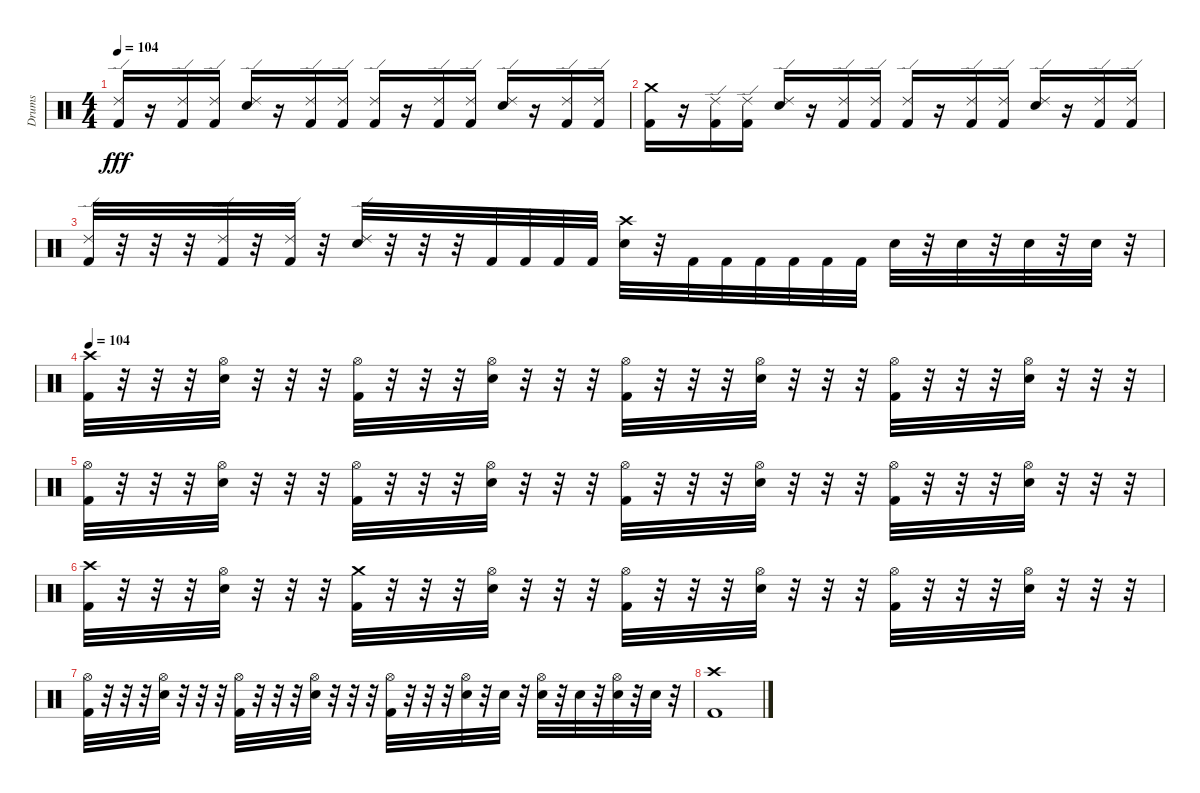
\track ("Drums" "Drums") {instrument percussion}
\staff {score}
\articulation defaults
\ts (4 4)
\tempo 104
\clef neutral
\ks c
("Ride (edge) 2" "Kick (hit) 2").16{dy fff} r.16 ("Ride (edge) 2" "Kick (hit) 2").16 ("Ride (edge) 2" "Kick (hit) 2").16 ("Ride (edge) 2" "Snare (hit) 2").16 r.16 ("Ride (edge) 2" "Kick (hit) 2").16 ("Ride (edge) 2" "Kick (hit) 2").16 ("Ride (edge) 2" "Kick (hit) 2").16 r.16 ("Ride (edge) 2" "Kick (hit) 2").16 ("Ride (edge) 2" "Kick (hit) 2").16 ("Ride (edge) 2" "Snare (hit) 2").16 r.16 ("Ride (edge) 2" "Kick (hit) 2").16 ("Ride (edge) 2" "Kick (hit) 2").16 |
("Crash medium (hit)" "Kick (hit) 2").16 r.16 ("Ride (edge) 2" "Kick (hit) 2").16 ("Ride (edge) 2" "Kick (hit) 2").16 ("Ride (edge) 2" "Snare (hit) 2").16 r.16 ("Ride (edge) 2" "Kick (hit) 2").16 ("Ride (edge) 2" "Kick (hit) 2").16 ("Ride (edge) 2" "Kick (hit) 2").16 r.16 ("Ride (edge) 2" "Kick (hit) 2").16 ("Ride (edge) 2" "Kick (hit) 2").16 ("Ride (edge) 2" "Snare (hit) 2").16 r.16 ("Ride (edge) 2" "Kick (hit) 2").16 ("Ride (edge) 2" "Kick (hit) 2").16 |
("Ride (edge) 2" "Kick (hit) 2").32 r.32 r.32 r.32 ("Ride (edge) 2" "Kick (hit) 2").32 r.32 ("Ride (edge) 2" "Kick (hit) 2").32 r.32 ("Ride (edge) 2" "Snare (hit) 2").32 r.32 r.32 r.32 "Kick (hit) 2".32 "Kick (hit) 2".32 "Kick (hit) 2".32 "Kick (hit) 2".32 ("Crash high (hit)" "Snare (hit) 2").32 r.32 "Kick (hit) 2".32 "Kick (hit) 2".32 "Kick (hit) 2".32 "Kick (hit) 2".32 "Kick (hit) 2".32 "Kick (hit) 2".32 "Snare (hit) 2".32 r.32 "Snare (hit) 2".32 r.32 "Snare (hit) 2".32 r.32 "Snare (hit) 2".32 r.32 |
\tempo 104
("Crash high (hit)" "Kick (hit) 2").32 r.32 r.32 r.32 ("Hi-Hat (open)" "Snare (hit) 2").32 r.32 r.32 r.32 ("Hi-Hat (open)" "Kick (hit) 2").32 r.32 r.32 r.32 ("Hi-Hat (open)" "Snare (hit) 2").32 r.32 r.32 r.32 ("Hi-Hat (open)" "Kick (hit) 2").32 r.32 r.32 r.32 ("Hi-Hat (open)" "Snare (hit) 2").32 r.32 r.32 r.32 ("Hi-Hat (open)" "Kick (hit) 2").32 r.32 r.32 r.32 ("Hi-Hat (open)" "Snare (hit) 2").32 r.32 r.32 r.32 |
("Hi-Hat (open)" "Kick (hit) 2").32 r.32 r.32 r.32 ("Hi-Hat (open)" "Snare (hit) 2").32 r.32 r.32 r.32 ("Hi-Hat (open)" "Kick (hit) 2").32 r.32 r.32 r.32 ("Hi-Hat (open)" "Snare (hit) 2").32 r.32 r.32 r.32 ("Hi-Hat (open)" "Kick (hit) 2").32 r.32 r.32 r.32 ("Hi-Hat (open)" "Snare (hit) 2").32 r.32 r.32 r.32 ("Hi-Hat (open)" "Kick (hit) 2").32 r.32 r.32 r.32 ("Hi-Hat (open)" "Snare (hit) 2").32 r.32 r.32 r.32 |
("Crash high (hit)" "Kick (hit) 2").32 r.32 r.32 r.32 ("Hi-Hat (open)" "Snare (hit) 2").32 r.32 r.32 r.32 ("Crash medium (hit)" "Kick (hit) 2").32 r.32 r.32 r.32 ("Hi-Hat (open)" "Snare (hit) 2").32 r.32 r.32 r.32 ("Hi-Hat (open)" "Kick (hit) 2").32 r.32 r.32 r.32 ("Hi-Hat (open)" "Snare (hit) 2").32 r.32 r.32 r.32 ("Hi-Hat (open)" "Kick (hit) 2").32 r.32 r.32 r.32 ("Hi-Hat (open)" "Snare (hit) 2").32 r.32 r.32 r.32 |
("Hi-Hat (open)" "Kick (hit) 2").32 r.32 r.32 r.32 ("Hi-Hat (open)" "Snare (hit) 2").32 r.32 r.32 r.32 ("Hi-Hat (open)" "Kick (hit) 2").32 r.32 r.32 r.32 ("Hi-Hat (open)" "Snare (hit) 2").32 r.32 r.32 r.32 ("Hi-Hat (open)" "Kick (hit) 2").32 r.32 r.32 r.32 ("Hi-Hat (open)" "Snare (hit) 2").32 r.32 "Snare (hit) 2".32 r.32 ("Hi-Hat (open)" "Snare (hit) 2").32 r.32 "Snare (hit) 2".32 r.32 ("Hi-Hat (open)" "Snare (hit) 2").32 r.32 "Snare (hit) 2".32 r.32 |
("Crash high (hit)" "Kick (hit) 2").1
